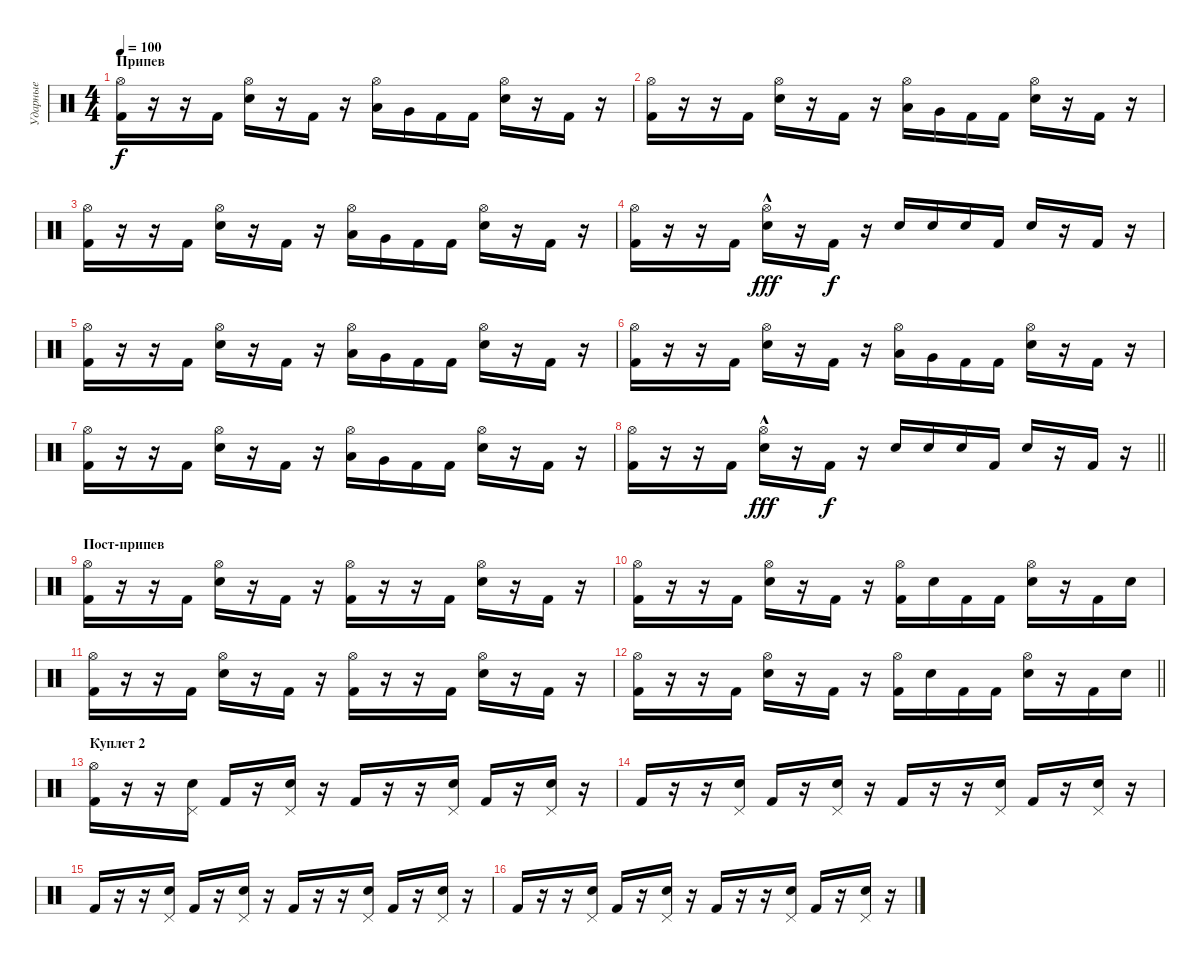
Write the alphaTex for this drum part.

\track ("Ударные" "Ударные") {instrument percussion}
\staff {score}
\articulation defaults
\ts (4 4)
\section ("" "Припев")
\tempo 100
\clef neutral
\ks c
("Kick (hit) 2" "Hi-Hat (open)").16{dy f} r.16 r.16 "Kick (hit) 2".16 ("Electric Snare (hit)" "Hi-Hat (open)").16 r.16 "Kick (hit) 2".16 r.16 ("Low Tom (hit)" "Hi-Hat (open)").16 "Very Low Tom (hit)".16 "Kick (hit) 2".16 "Kick (hit) 2".16 ("Electric Snare (hit)" "Hi-Hat (open)").16 r.16 "Kick (hit) 2".16 r.16 |
("Kick (hit) 2" "Hi-Hat (open)").16 r.16 r.16 "Kick (hit) 2".16 ("Electric Snare (hit)" "Hi-Hat (open)").16 r.16 "Kick (hit) 2".16 r.16 ("Low Tom (hit)" "Hi-Hat (open)").16 "Very Low Tom (hit)".16 "Kick (hit) 2".16 "Kick (hit) 2".16 ("Electric Snare (hit)" "Hi-Hat (open)").16 r.16 "Kick (hit) 2".16 r.16 |
("Kick (hit) 2" "Hi-Hat (open)").16 r.16 r.16 "Kick (hit) 2".16 ("Electric Snare (hit)" "Hi-Hat (open)").16 r.16 "Kick (hit) 2".16 r.16 ("Low Tom (hit)" "Hi-Hat (open)").16 "Very Low Tom (hit)".16 "Kick (hit) 2".16 "Kick (hit) 2".16 ("Electric Snare (hit)" "Hi-Hat (open)").16 r.16 "Kick (hit) 2".16 r.16 |
("Kick (hit) 2" "Hi-Hat (open)").16 r.16 r.16 "Kick (hit) 2".16 ("Electric Snare (hit)"{hac} "Hi-Hat (open)").16{dy fff} r.16 "Kick (hit) 2".16{dy f} r.16 "Electric Snare (hit)".16 "Electric Snare (hit)".16 "Electric Snare (hit)".16 "Kick (hit) 2".16 "Electric Snare (hit)".16 r.16 "Kick (hit) 2".16 r.16 |
("Kick (hit) 2" "Hi-Hat (open)").16 r.16 r.16 "Kick (hit) 2".16 ("Electric Snare (hit)" "Hi-Hat (open)").16 r.16 "Kick (hit) 2".16 r.16 ("Low Tom (hit)" "Hi-Hat (open)").16 "Very Low Tom (hit)".16 "Kick (hit) 2".16 "Kick (hit) 2".16 ("Electric Snare (hit)" "Hi-Hat (open)").16 r.16 "Kick (hit) 2".16 r.16 |
("Kick (hit) 2" "Hi-Hat (open)").16 r.16 r.16 "Kick (hit) 2".16 ("Electric Snare (hit)" "Hi-Hat (open)").16 r.16 "Kick (hit) 2".16 r.16 ("Low Tom (hit)" "Hi-Hat (open)").16 "Very Low Tom (hit)".16 "Kick (hit) 2".16 "Kick (hit) 2".16 ("Electric Snare (hit)" "Hi-Hat (open)").16 r.16 "Kick (hit) 2".16 r.16 |
("Kick (hit) 2" "Hi-Hat (open)").16 r.16 r.16 "Kick (hit) 2".16 ("Electric Snare (hit)" "Hi-Hat (open)").16 r.16 "Kick (hit) 2".16 r.16 ("Low Tom (hit)" "Hi-Hat (open)").16 "Very Low Tom (hit)".16 "Kick (hit) 2".16 "Kick (hit) 2".16 ("Electric Snare (hit)" "Hi-Hat (open)").16 r.16 "Kick (hit) 2".16 r.16 |
\barLineRight lightlight
("Kick (hit) 2" "Hi-Hat (open)").16 r.16 r.16 "Kick (hit) 2".16 ("Electric Snare (hit)"{hac} "Hi-Hat (open)").16{dy fff} r.16 "Kick (hit) 2".16{dy f} r.16 "Electric Snare (hit)".16 "Electric Snare (hit)".16 "Electric Snare (hit)".16 "Kick (hit) 2".16 "Electric Snare (hit)".16 r.16 "Kick (hit) 2".16 r.16 |
\section ("" "Пост-припев")
("Kick (hit) 2" "Hi-Hat (open)").16 r.16 r.16 "Kick (hit) 2".16 ("Electric Snare (hit)" "Hi-Hat (open)").16 r.16 "Kick (hit) 2".16 r.16 ("Kick (hit) 2" "Hi-Hat (open)").16 r.16 r.16 "Kick (hit) 2".16 ("Electric Snare (hit)" "Hi-Hat (open)").16 r.16 "Kick (hit) 2".16 r.16 |
("Kick (hit) 2" "Hi-Hat (open)").16 r.16 r.16 "Kick (hit) 2".16 ("Electric Snare (hit)" "Hi-Hat (open)").16 r.16 "Kick (hit) 2".16 r.16 ("Kick (hit) 2" "Hi-Hat (open)").16 "Electric Snare (hit)".16 "Kick (hit) 2".16 "Kick (hit) 2".16 ("Electric Snare (hit)" "Hi-Hat (open)").16 r.16 "Kick (hit) 2".16 "Electric Snare (hit)".16 |
("Kick (hit) 2" "Hi-Hat (open)").16 r.16 r.16 "Kick (hit) 2".16 ("Electric Snare (hit)" "Hi-Hat (open)").16 r.16 "Kick (hit) 2".16 r.16 ("Kick (hit) 2" "Hi-Hat (open)").16 r.16 r.16 "Kick (hit) 2".16 ("Electric Snare (hit)" "Hi-Hat (open)").16 r.16 "Kick (hit) 2".16 r.16 |
\barLineRight lightlight
("Kick (hit) 2" "Hi-Hat (open)").16 r.16 r.16 "Kick (hit) 2".16 ("Electric Snare (hit)" "Hi-Hat (open)").16 r.16 "Kick (hit) 2".16 r.16 ("Kick (hit) 2" "Hi-Hat (open)").16 "Electric Snare (hit)".16 "Kick (hit) 2".16 "Kick (hit) 2".16 ("Electric Snare (hit)" "Hi-Hat (open)").16 r.16 "Kick (hit) 2".16 "Electric Snare (hit)".16 |
\section ("" "Куплет 2")
("Kick (hit) 2" "Hi-Hat (open)").16 r.16 r.16 ("Electric Snare (hit)" "Pedal Hi-Hat (hit)").16 "Kick (hit) 2".16 r.16 ("Electric Snare (hit)" "Pedal Hi-Hat (hit)").16 r.16 "Kick (hit) 2".16 r.16 r.16 ("Electric Snare (hit)" "Pedal Hi-Hat (hit)").16 "Kick (hit) 2".16 r.16 ("Electric Snare (hit)" "Pedal Hi-Hat (hit)").16 r.16 |
"Kick (hit) 2".16 r.16 r.16 ("Electric Snare (hit)" "Pedal Hi-Hat (hit)").16 "Kick (hit) 2".16 r.16 ("Electric Snare (hit)" "Pedal Hi-Hat (hit)").16 r.16 "Kick (hit) 2".16 r.16 r.16 ("Electric Snare (hit)" "Pedal Hi-Hat (hit)").16 "Kick (hit) 2".16 r.16 ("Electric Snare (hit)" "Pedal Hi-Hat (hit)").16 r.16 |
"Kick (hit) 2".16 r.16 r.16 ("Electric Snare (hit)" "Pedal Hi-Hat (hit)").16 "Kick (hit) 2".16 r.16 ("Electric Snare (hit)" "Pedal Hi-Hat (hit)").16 r.16 "Kick (hit) 2".16 r.16 r.16 ("Electric Snare (hit)" "Pedal Hi-Hat (hit)").16 "Kick (hit) 2".16 r.16 ("Electric Snare (hit)" "Pedal Hi-Hat (hit)").16 r.16 |
"Kick (hit) 2".16 r.16 r.16 ("Electric Snare (hit)" "Pedal Hi-Hat (hit)").16 "Kick (hit) 2".16 r.16 ("Electric Snare (hit)" "Pedal Hi-Hat (hit)").16 r.16 "Kick (hit) 2".16 r.16 r.16 ("Electric Snare (hit)" "Pedal Hi-Hat (hit)").16 "Kick (hit) 2".16 r.16 ("Electric Snare (hit)" "Pedal Hi-Hat (hit)").16 r.16
